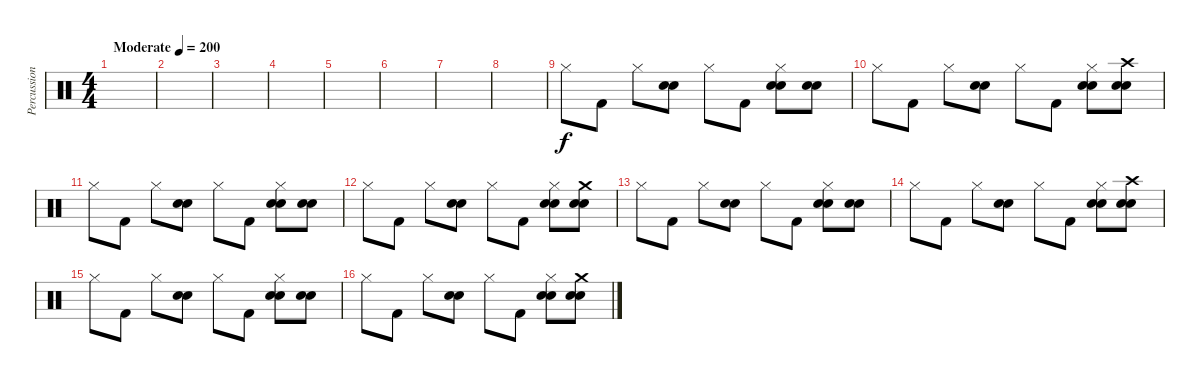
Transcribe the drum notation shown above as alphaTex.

\track ("Percussions" "Percussion") {instrument percussion}
\staff {score}
\articulation defaults
\ts (4 4)
\tempo (200 "Moderate")
\clef neutral
\ks c
|
|
|
|
|
|
|
|
"Hi-Hat (closed)".8 "Kick (hit) 2".8 "Hi-Hat (closed)".8 ("Snare (hit) 2" "Electric Snare (hit)").8 "Hi-Hat (closed)".8 "Kick (hit) 2".8 ("Hi-Hat (closed)" "Snare (hit) 2" "Electric Snare (hit)").8 ("Snare (hit) 2" "Electric Snare (hit)").8 |
"Hi-Hat (closed)".8 "Kick (hit) 2".8 "Hi-Hat (closed)".8 ("Snare (hit) 2" "Electric Snare (hit)").8 "Hi-Hat (closed)".8 "Kick (hit) 2".8 ("Hi-Hat (closed)" "Snare (hit) 2" "Electric Snare (hit)").8 ("Crash high (hit)" "Snare (hit) 2" "Electric Snare (hit)").8 |
"Hi-Hat (closed)".8 "Kick (hit) 2".8 "Hi-Hat (closed)".8 ("Snare (hit) 2" "Electric Snare (hit)").8 "Hi-Hat (closed)".8 "Kick (hit) 2".8 ("Hi-Hat (closed)" "Snare (hit) 2" "Electric Snare (hit)").8 ("Snare (hit) 2" "Electric Snare (hit)").8 |
"Hi-Hat (closed)".8 "Kick (hit) 2".8 "Hi-Hat (closed)".8 ("Snare (hit) 2" "Electric Snare (hit)").8 "Hi-Hat (closed)".8 "Kick (hit) 2".8 ("Hi-Hat (closed)" "Snare (hit) 2" "Electric Snare (hit)").8 ("Crash medium (hit)" "Snare (hit) 2" "Electric Snare (hit)").8 |
"Hi-Hat (closed)".8 "Kick (hit) 2".8 "Hi-Hat (closed)".8 ("Snare (hit) 2" "Electric Snare (hit)").8 "Hi-Hat (closed)".8 "Kick (hit) 2".8 ("Hi-Hat (closed)" "Snare (hit) 2" "Electric Snare (hit)").8 ("Snare (hit) 2" "Electric Snare (hit)").8 |
"Hi-Hat (closed)".8 "Kick (hit) 2".8 "Hi-Hat (closed)".8 ("Snare (hit) 2" "Electric Snare (hit)").8 "Hi-Hat (closed)".8 "Kick (hit) 2".8 ("Hi-Hat (closed)" "Snare (hit) 2" "Electric Snare (hit)").8 ("Crash high (hit)" "Snare (hit) 2" "Electric Snare (hit)").8 |
"Hi-Hat (closed)".8 "Kick (hit) 2".8 "Hi-Hat (closed)".8 ("Snare (hit) 2" "Electric Snare (hit)").8 "Hi-Hat (closed)".8 "Kick (hit) 2".8 ("Hi-Hat (closed)" "Snare (hit) 2" "Electric Snare (hit)").8 ("Snare (hit) 2" "Electric Snare (hit)").8 |
"Hi-Hat (closed)".8 "Kick (hit) 2".8 "Hi-Hat (closed)".8 ("Snare (hit) 2" "Electric Snare (hit)").8 "Hi-Hat (closed)".8 "Kick (hit) 2".8 ("Hi-Hat (closed)" "Snare (hit) 2" "Electric Snare (hit)").8 ("Crash medium (hit)" "Snare (hit) 2" "Electric Snare (hit)").8
